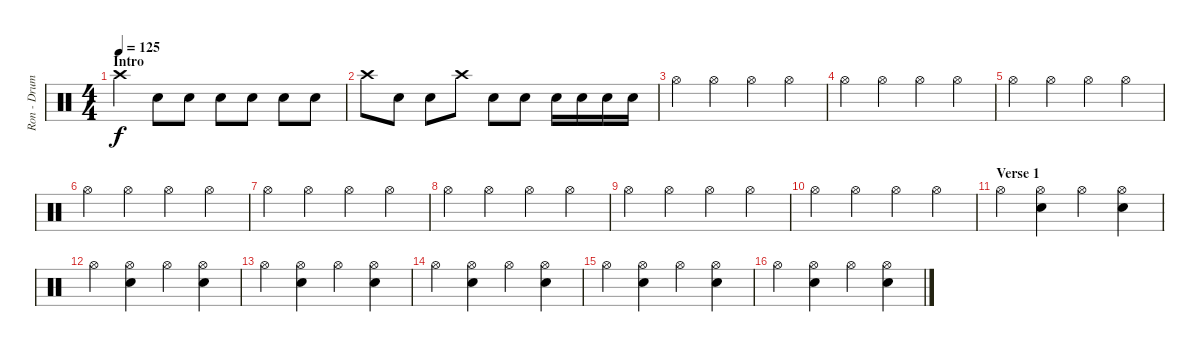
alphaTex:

\track ("Ron - Drums" "Ron - Drum") {instrument percussion}
\staff {score}
\articulation defaults
\ts (4 4)
\section ("" "Intro")
\tempo 125
\clef neutral
\ks c "Crash high (hit)".4{dy f} "Electric Snare (hit)".8 "Electric Snare (hit)".8 "Electric Snare (hit)".8 "Electric Snare (hit)".8 "Electric Snare (hit)".8 "Electric Snare (hit)".8
|
"Crash high (hit)".8 "Electric Snare (hit)".8 "Electric Snare (hit)".8 "Crash high (hit)".8 "Electric Snare (hit)".8 "Electric Snare (hit)".8 "Electric Snare (hit)".16 "Electric Snare (hit)".16 "Electric Snare (hit)".16 "Electric Snare (hit)".16 |
"Hi-Hat (open)".4 "Hi-Hat (open)".4 "Hi-Hat (open)".4 "Hi-Hat (open)".4 |
"Hi-Hat (open)".4 "Hi-Hat (open)".4 "Hi-Hat (open)".4 "Hi-Hat (open)".4 |
"Hi-Hat (open)".4 "Hi-Hat (open)".4 "Hi-Hat (open)".4 "Hi-Hat (open)".4 |
"Hi-Hat (open)".4 "Hi-Hat (open)".4 "Hi-Hat (open)".4 "Hi-Hat (open)".4 |
"Hi-Hat (open)".4 "Hi-Hat (open)".4 "Hi-Hat (open)".4 "Hi-Hat (open)".4 |
"Hi-Hat (open)".4 "Hi-Hat (open)".4 "Hi-Hat (open)".4 "Hi-Hat (open)".4 |
"Hi-Hat (open)".4 "Hi-Hat (open)".4 "Hi-Hat (open)".4 "Hi-Hat (open)".4 |
"Hi-Hat (open)".4 "Hi-Hat (open)".4 "Hi-Hat (open)".4 "Hi-Hat (open)".4 |
\section ("" "Verse 1")
"Hi-Hat (open)".4 ("Hi-Hat (open)" "Electric Snare (hit)").4 "Hi-Hat (open)".4 ("Hi-Hat (open)" "Electric Snare (hit)").4 |
"Hi-Hat (open)".4 ("Hi-Hat (open)" "Electric Snare (hit)").4 "Hi-Hat (open)".4 ("Hi-Hat (open)" "Electric Snare (hit)").4 |
"Hi-Hat (open)".4 ("Hi-Hat (open)" "Electric Snare (hit)").4 "Hi-Hat (open)".4 ("Hi-Hat (open)" "Electric Snare (hit)").4 |
"Hi-Hat (open)".4 ("Hi-Hat (open)" "Electric Snare (hit)").4 "Hi-Hat (open)".4 ("Hi-Hat (open)" "Electric Snare (hit)").4 |
"Hi-Hat (open)".4 ("Hi-Hat (open)" "Electric Snare (hit)").4 "Hi-Hat (open)".4 ("Hi-Hat (open)" "Electric Snare (hit)").4 |
"Hi-Hat (open)".4 ("Hi-Hat (open)" "Electric Snare (hit)").4 "Hi-Hat (open)".4 ("Hi-Hat (open)" "Electric Snare (hit)").4
